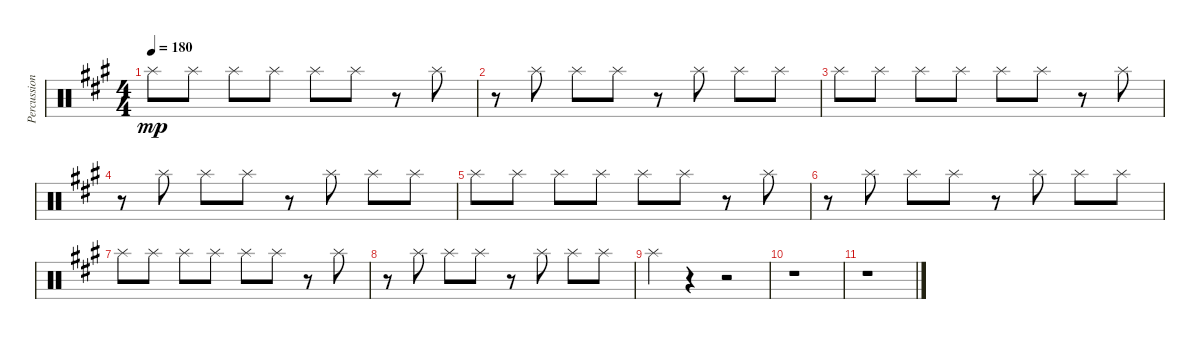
\track ("Percussion" "Percussion") {instrument percussion}
\staff {score}
\articulation defaults
\ts (4 4)
\tempo 180
\clef neutral
\ks a "Splash (hit)".8{dy mp} "Splash (hit)".8 "Splash (hit)".8 "Splash (hit)".8 "Splash (hit)".8 "Splash (hit)".8
r.8 "Splash (hit)".8 |
r.8 "Splash (hit)".8 "Splash (hit)".8 "Splash (hit)".8 r.8 "Splash (hit)".8 "Splash (hit)".8 "Splash (hit)".8 |
"Splash (hit)".8 "Splash (hit)".8 "Splash (hit)".8 "Splash (hit)".8 "Splash (hit)".8 "Splash (hit)".8 r.8 "Splash (hit)".8 |
r.8 "Splash (hit)".8 "Splash (hit)".8 "Splash (hit)".8 r.8 "Splash (hit)".8 "Splash (hit)".8 "Splash (hit)".8 |
"Splash (hit)".8 "Splash (hit)".8 "Splash (hit)".8 "Splash (hit)".8 "Splash (hit)".8 "Splash (hit)".8 r.8 "Splash (hit)".8 |
r.8 "Splash (hit)".8 "Splash (hit)".8 "Splash (hit)".8 r.8 "Splash (hit)".8 "Splash (hit)".8 "Splash (hit)".8 |
"Splash (hit)".8 "Splash (hit)".8 "Splash (hit)".8 "Splash (hit)".8 "Splash (hit)".8 "Splash (hit)".8 r.8 "Splash (hit)".8 |
r.8 "Splash (hit)".8 "Splash (hit)".8 "Splash (hit)".8 r.8 "Splash (hit)".8 "Splash (hit)".8 "Splash (hit)".8 |
"Splash (hit)".4 r.4 r.2 |
r.1 |
r.1
